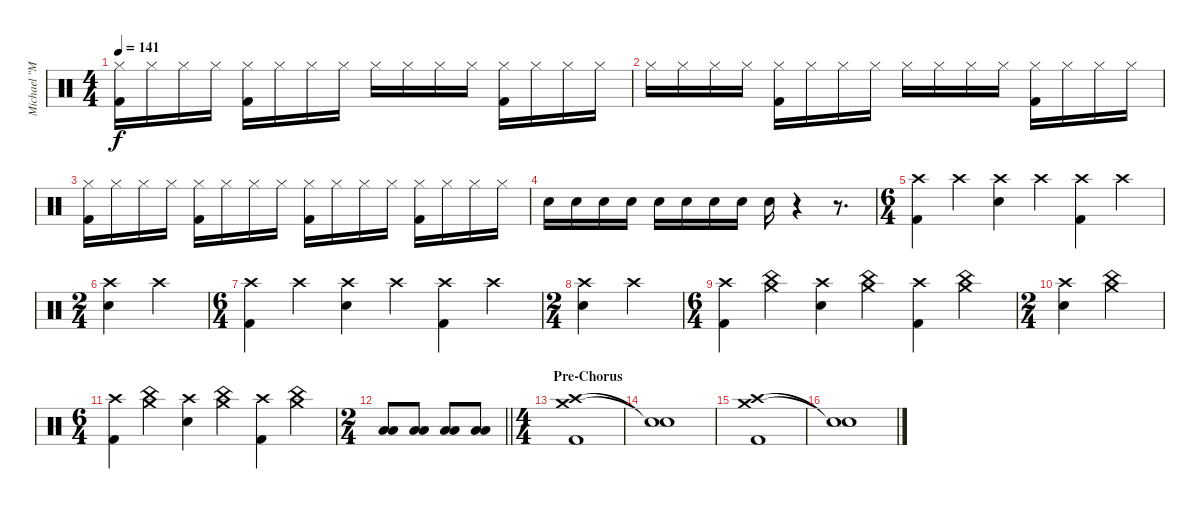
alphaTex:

\track ("Michael \"Moose\" Thomas" "Michael \"M") {instrument percussion}
\staff {score}
\articulation defaults
\ts (4 4)
\tempo 141
\clef neutral
\ks c
("Hi-Hat (closed)" "Kick (hit) 2").16{dy f} "Hi-Hat (closed)".16 "Hi-Hat (closed)".16 "Hi-Hat (closed)".16 ("Hi-Hat (closed)" "Kick (hit) 2").16 "Hi-Hat (closed)".16 "Hi-Hat (closed)".16 "Hi-Hat (closed)".16 "Hi-Hat (closed)".16 "Hi-Hat (closed)".16 "Hi-Hat (closed)".16 "Hi-Hat (closed)".16 ("Hi-Hat (closed)" "Kick (hit) 2").16 "Hi-Hat (closed)".16 "Hi-Hat (closed)".16 "Hi-Hat (closed)".16 |
"Hi-Hat (closed)".16 "Hi-Hat (closed)".16 "Hi-Hat (closed)".16 "Hi-Hat (closed)".16 ("Hi-Hat (closed)" "Kick (hit) 2").16 "Hi-Hat (closed)".16 "Hi-Hat (closed)".16 "Hi-Hat (closed)".16 "Hi-Hat (closed)".16 "Hi-Hat (closed)".16 "Hi-Hat (closed)".16 "Hi-Hat (closed)".16 ("Hi-Hat (closed)" "Kick (hit) 2").16 "Hi-Hat (closed)".16 "Hi-Hat (closed)".16 "Hi-Hat (closed)".16 |
("Hi-Hat (closed)" "Kick (hit) 2").16 "Hi-Hat (closed)".16 "Hi-Hat (closed)".16 "Hi-Hat (closed)".16 ("Hi-Hat (closed)" "Kick (hit) 2").16 "Hi-Hat (closed)".16 "Hi-Hat (closed)".16 "Hi-Hat (closed)".16 ("Hi-Hat (closed)" "Kick (hit) 2").16 "Hi-Hat (closed)".16 "Hi-Hat (closed)".16 "Hi-Hat (closed)".16 ("Hi-Hat (closed)" "Kick (hit) 2").16 "Hi-Hat (closed)".16 "Hi-Hat (closed)".16 "Hi-Hat (closed)".16 |
"Snare (hit) 2".16 "Snare (hit) 2".16 "Snare (hit) 2".16 "Snare (hit) 2".16 "Snare (hit) 2".16 "Snare (hit) 2".16 "Snare (hit) 2".16 "Snare (hit) 2".16 "Snare (hit) 2".16 r.4 r.8{d} |
\ts (6 4)
("Crash high (hit)" "Kick (hit) 2").4 "Crash high (hit)".4 ("Crash high (hit)" "Snare (hit) 2").4 "Crash high (hit)".4 ("Crash high (hit)" "Kick (hit) 2").4 "Crash high (hit)".4 |
\ts (2 4)
("Crash high (hit)" "Snare (hit) 2").4 "Crash high (hit)".4 |
\ts (6 4)
("Crash high (hit)" "Kick (hit) 2").4 "Crash high (hit)".4 ("Crash high (hit)" "Snare (hit) 2").4 "Crash high (hit)".4 ("Crash high (hit)" "Kick (hit) 2").4 "Crash high (hit)".4 |
\ts (2 4)
("Crash high (hit)" "Snare (hit) 2").4 "Crash high (hit)".4 |
\ts (6 4)
("Crash high (hit)" "Kick (hit) 2").4 ("China (hit)" "Crash medium (hit)").4 ("Crash high (hit)" "Snare (hit) 2").4 ("China (hit)" "Crash medium (hit)").4 ("Crash high (hit)" "Kick (hit) 2").4 ("China (hit)" "Crash medium (hit)").4 |
\ts (2 4)
("Crash high (hit)" "Snare (hit) 2").4 ("China (hit)" "Crash medium (hit)").4 |
\ts (6 4)
("Crash high (hit)" "Kick (hit) 2").4 ("China (hit)" "Crash medium (hit)").4 ("Crash high (hit)" "Snare (hit) 2").4 ("China (hit)" "Crash medium (hit)").4 ("Crash high (hit)" "Kick (hit) 2").4 ("China (hit)" "Crash medium (hit)").4 |
\ts (2 4)
\barLineRight lightlight
("Low Tom (hit)" "Low Floor Tom (hit)").8 ("Low Tom (hit)" "Low Floor Tom (hit)").8 ("Low Tom (hit)" "Low Floor Tom (hit)").8 ("Low Tom (hit)" "Low Floor Tom (hit)").8 |
\ts (4 4)
\section ("" "Pre-Chorus")
("Crash high (hit)" "Crash medium (hit)" "Kick (hit) 2").1 |
("Snare (hit)"{t} "Snare (hit)"{t}).1 |
("Crash high (hit)" "Crash medium (hit)" "Kick (hit) 2").1 |
("Snare (hit)"{t} "Snare (hit)"{t}).1
